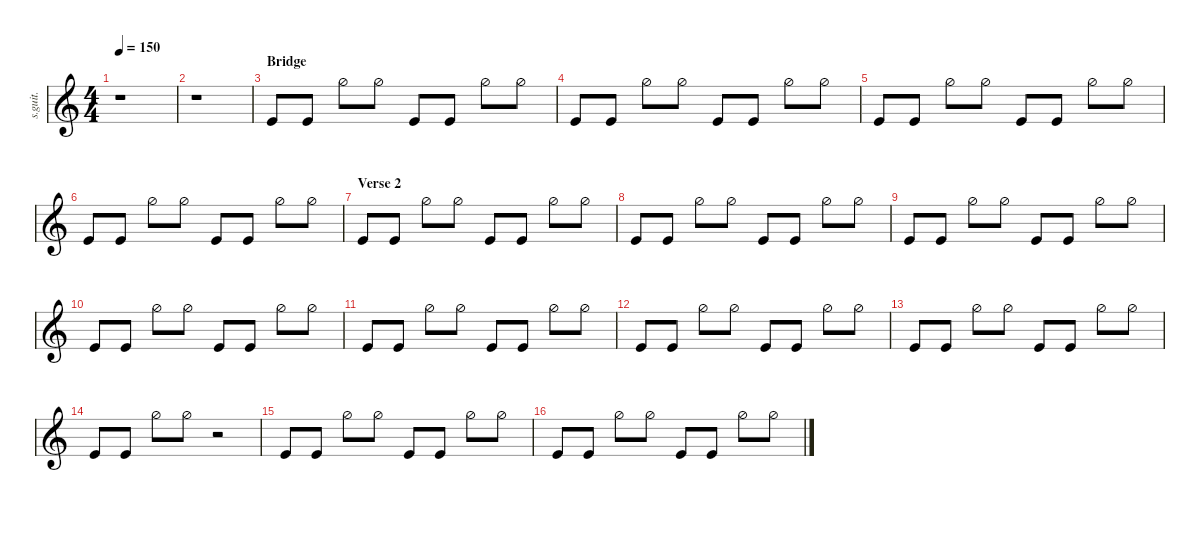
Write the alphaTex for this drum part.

\defaultSystemsLayout 4
\hideDynamics
\bracketExtendMode nobrackets
\track ("Synth Drums 1" "s.guit.") {instrument percussion}
\staff {score}
\articulation defaults
\ts (4 4)
\tempo 150
\clef g2
\ks c
r.1{dy f} |
r.1 |
\section ("" "Bridge")
"Kick (hit)".8{lyrics (0 "") lyrics (1 "") lyrics (2 "") lyrics (3 "") lyrics (4 "")} "Kick (hit)".8{lyrics (0 "") lyrics (1 "") lyrics (2 "") lyrics (3 "") lyrics (4 "")} "Hi-Hat (half)".8{lyrics (0 "") lyrics (1 "") lyrics (2 "") lyrics (3 "") lyrics (4 "")} "Hi-Hat (half)".8{lyrics (0 "") lyrics (1 "") lyrics (2 "") lyrics (3 "") lyrics (4 "")} "Kick (hit)".8{lyrics (0 "") lyrics (1 "") lyrics (2 "") lyrics (3 "") lyrics (4 "")} "Kick (hit)".8{lyrics (0 "") lyrics (1 "") lyrics (2 "") lyrics (3 "") lyrics (4 "")} "Hi-Hat (half)".8{lyrics (0 "") lyrics (1 "") lyrics (2 "") lyrics (3 "") lyrics (4 "")} "Hi-Hat (half)".8{lyrics (0 "") lyrics (1 "") lyrics (2 "") lyrics (3 "") lyrics (4 "")} |
"Kick (hit)".8{lyrics (0 "") lyrics (1 "") lyrics (2 "") lyrics (3 "") lyrics (4 "")} "Kick (hit)".8{lyrics (0 "") lyrics (1 "") lyrics (2 "") lyrics (3 "") lyrics (4 "")} "Hi-Hat (half)".8{lyrics (0 "") lyrics (1 "") lyrics (2 "") lyrics (3 "") lyrics (4 "")} "Hi-Hat (half)".8{lyrics (0 "") lyrics (1 "") lyrics (2 "") lyrics (3 "") lyrics (4 "")} "Kick (hit)".8{lyrics (0 "") lyrics (1 "") lyrics (2 "") lyrics (3 "") lyrics (4 "")} "Kick (hit)".8{lyrics (0 "") lyrics (1 "") lyrics (2 "") lyrics (3 "") lyrics (4 "")} "Hi-Hat (half)".8{lyrics (0 "") lyrics (1 "") lyrics (2 "") lyrics (3 "") lyrics (4 "")} "Hi-Hat (half)".8{lyrics (0 "") lyrics (1 "") lyrics (2 "") lyrics (3 "") lyrics (4 "")} |
"Kick (hit)".8{lyrics (0 "") lyrics (1 "") lyrics (2 "") lyrics (3 "") lyrics (4 "")} "Kick (hit)".8{lyrics (0 "") lyrics (1 "") lyrics (2 "") lyrics (3 "") lyrics (4 "")} "Hi-Hat (half)".8{lyrics (0 "") lyrics (1 "") lyrics (2 "") lyrics (3 "") lyrics (4 "")} "Hi-Hat (half)".8{lyrics (0 "") lyrics (1 "") lyrics (2 "") lyrics (3 "") lyrics (4 "")} "Kick (hit)".8{lyrics (0 "") lyrics (1 "") lyrics (2 "") lyrics (3 "") lyrics (4 "")} "Kick (hit)".8{lyrics (0 "") lyrics (1 "") lyrics (2 "") lyrics (3 "") lyrics (4 "")} "Hi-Hat (half)".8{lyrics (0 "") lyrics (1 "") lyrics (2 "") lyrics (3 "") lyrics (4 "")} "Hi-Hat (half)".8{lyrics (0 "") lyrics (1 "") lyrics (2 "") lyrics (3 "") lyrics (4 "")} |
"Kick (hit)".8{lyrics (0 "") lyrics (1 "") lyrics (2 "") lyrics (3 "") lyrics (4 "")} "Kick (hit)".8{lyrics (0 "") lyrics (1 "") lyrics (2 "") lyrics (3 "") lyrics (4 "")} "Hi-Hat (half)".8{lyrics (0 "") lyrics (1 "") lyrics (2 "") lyrics (3 "") lyrics (4 "")} "Hi-Hat (half)".8{lyrics (0 "") lyrics (1 "") lyrics (2 "") lyrics (3 "") lyrics (4 "")} "Kick (hit)".8{lyrics (0 "") lyrics (1 "") lyrics (2 "") lyrics (3 "") lyrics (4 "")} "Kick (hit)".8{lyrics (0 "") lyrics (1 "") lyrics (2 "") lyrics (3 "") lyrics (4 "")} "Hi-Hat (half)".8{lyrics (0 "") lyrics (1 "") lyrics (2 "") lyrics (3 "") lyrics (4 "")} "Hi-Hat (half)".8{lyrics (0 "") lyrics (1 "") lyrics (2 "") lyrics (3 "") lyrics (4 "")} |
\section ("" "Verse 2")
"Kick (hit)".8{lyrics (0 "") lyrics (1 "") lyrics (2 "") lyrics (3 "") lyrics (4 "")} "Kick (hit)".8{lyrics (0 "") lyrics (1 "") lyrics (2 "") lyrics (3 "") lyrics (4 "")} "Hi-Hat (half)".8{lyrics (0 "") lyrics (1 "") lyrics (2 "") lyrics (3 "") lyrics (4 "")} "Hi-Hat (half)".8{lyrics (0 "") lyrics (1 "") lyrics (2 "") lyrics (3 "") lyrics (4 "")} "Kick (hit)".8{lyrics (0 "") lyrics (1 "") lyrics (2 "") lyrics (3 "") lyrics (4 "")} "Kick (hit)".8{lyrics (0 "") lyrics (1 "") lyrics (2 "") lyrics (3 "") lyrics (4 "")} "Hi-Hat (half)".8{lyrics (0 "") lyrics (1 "") lyrics (2 "") lyrics (3 "") lyrics (4 "")} "Hi-Hat (half)".8{lyrics (0 "") lyrics (1 "") lyrics (2 "") lyrics (3 "") lyrics (4 "")} |
"Kick (hit)".8{lyrics (0 "") lyrics (1 "") lyrics (2 "") lyrics (3 "") lyrics (4 "")} "Kick (hit)".8{lyrics (0 "") lyrics (1 "") lyrics (2 "") lyrics (3 "") lyrics (4 "")} "Hi-Hat (half)".8{lyrics (0 "") lyrics (1 "") lyrics (2 "") lyrics (3 "") lyrics (4 "")} "Hi-Hat (half)".8{lyrics (0 "") lyrics (1 "") lyrics (2 "") lyrics (3 "") lyrics (4 "")} "Kick (hit)".8{lyrics (0 "") lyrics (1 "") lyrics (2 "") lyrics (3 "") lyrics (4 "")} "Kick (hit)".8{lyrics (0 "") lyrics (1 "") lyrics (2 "") lyrics (3 "") lyrics (4 "")} "Hi-Hat (half)".8{lyrics (0 "") lyrics (1 "") lyrics (2 "") lyrics (3 "") lyrics (4 "")} "Hi-Hat (half)".8{lyrics (0 "") lyrics (1 "") lyrics (2 "") lyrics (3 "") lyrics (4 "")} |
"Kick (hit)".8{lyrics (0 "") lyrics (1 "") lyrics (2 "") lyrics (3 "") lyrics (4 "")} "Kick (hit)".8{lyrics (0 "") lyrics (1 "") lyrics (2 "") lyrics (3 "") lyrics (4 "")} "Hi-Hat (half)".8{lyrics (0 "") lyrics (1 "") lyrics (2 "") lyrics (3 "") lyrics (4 "")} "Hi-Hat (half)".8{lyrics (0 "") lyrics (1 "") lyrics (2 "") lyrics (3 "") lyrics (4 "")} "Kick (hit)".8{lyrics (0 "") lyrics (1 "") lyrics (2 "") lyrics (3 "") lyrics (4 "")} "Kick (hit)".8{lyrics (0 "") lyrics (1 "") lyrics (2 "") lyrics (3 "") lyrics (4 "")} "Hi-Hat (half)".8{lyrics (0 "") lyrics (1 "") lyrics (2 "") lyrics (3 "") lyrics (4 "")} "Hi-Hat (half)".8{lyrics (0 "") lyrics (1 "") lyrics (2 "") lyrics (3 "") lyrics (4 "")} |
"Kick (hit)".8{lyrics (0 "") lyrics (1 "") lyrics (2 "") lyrics (3 "") lyrics (4 "")} "Kick (hit)".8{lyrics (0 "") lyrics (1 "") lyrics (2 "") lyrics (3 "") lyrics (4 "")} "Hi-Hat (half)".8{lyrics (0 "") lyrics (1 "") lyrics (2 "") lyrics (3 "") lyrics (4 "")} "Hi-Hat (half)".8{lyrics (0 "") lyrics (1 "") lyrics (2 "") lyrics (3 "") lyrics (4 "")} "Kick (hit)".8{lyrics (0 "") lyrics (1 "") lyrics (2 "") lyrics (3 "") lyrics (4 "")} "Kick (hit)".8{lyrics (0 "") lyrics (1 "") lyrics (2 "") lyrics (3 "") lyrics (4 "")} "Hi-Hat (half)".8{lyrics (0 "") lyrics (1 "") lyrics (2 "") lyrics (3 "") lyrics (4 "")} "Hi-Hat (half)".8{lyrics (0 "") lyrics (1 "") lyrics (2 "") lyrics (3 "") lyrics (4 "")} |
"Kick (hit)".8{lyrics (0 "") lyrics (1 "") lyrics (2 "") lyrics (3 "") lyrics (4 "")} "Kick (hit)".8{lyrics (0 "") lyrics (1 "") lyrics (2 "") lyrics (3 "") lyrics (4 "")} "Hi-Hat (half)".8{lyrics (0 "") lyrics (1 "") lyrics (2 "") lyrics (3 "") lyrics (4 "")} "Hi-Hat (half)".8{lyrics (0 "") lyrics (1 "") lyrics (2 "") lyrics (3 "") lyrics (4 "")} "Kick (hit)".8{lyrics (0 "") lyrics (1 "") lyrics (2 "") lyrics (3 "") lyrics (4 "")} "Kick (hit)".8{lyrics (0 "") lyrics (1 "") lyrics (2 "") lyrics (3 "") lyrics (4 "")} "Hi-Hat (half)".8{lyrics (0 "") lyrics (1 "") lyrics (2 "") lyrics (3 "") lyrics (4 "")} "Hi-Hat (half)".8{lyrics (0 "") lyrics (1 "") lyrics (2 "") lyrics (3 "") lyrics (4 "")} |
"Kick (hit)".8{lyrics (0 "") lyrics (1 "") lyrics (2 "") lyrics (3 "") lyrics (4 "")} "Kick (hit)".8{lyrics (0 "") lyrics (1 "") lyrics (2 "") lyrics (3 "") lyrics (4 "")} "Hi-Hat (half)".8{lyrics (0 "") lyrics (1 "") lyrics (2 "") lyrics (3 "") lyrics (4 "")} "Hi-Hat (half)".8{lyrics (0 "") lyrics (1 "") lyrics (2 "") lyrics (3 "") lyrics (4 "")} "Kick (hit)".8{lyrics (0 "") lyrics (1 "") lyrics (2 "") lyrics (3 "") lyrics (4 "")} "Kick (hit)".8{lyrics (0 "") lyrics (1 "") lyrics (2 "") lyrics (3 "") lyrics (4 "")} "Hi-Hat (half)".8{lyrics (0 "") lyrics (1 "") lyrics (2 "") lyrics (3 "") lyrics (4 "")} "Hi-Hat (half)".8{lyrics (0 "") lyrics (1 "") lyrics (2 "") lyrics (3 "") lyrics (4 "")} |
"Kick (hit)".8{lyrics (0 "") lyrics (1 "") lyrics (2 "") lyrics (3 "") lyrics (4 "")} "Kick (hit)".8{lyrics (0 "") lyrics (1 "") lyrics (2 "") lyrics (3 "") lyrics (4 "")} "Hi-Hat (half)".8{lyrics (0 "") lyrics (1 "") lyrics (2 "") lyrics (3 "") lyrics (4 "")} "Hi-Hat (half)".8{lyrics (0 "") lyrics (1 "") lyrics (2 "") lyrics (3 "") lyrics (4 "")} "Kick (hit)".8{lyrics (0 "") lyrics (1 "") lyrics (2 "") lyrics (3 "") lyrics (4 "")} "Kick (hit)".8{lyrics (0 "") lyrics (1 "") lyrics (2 "") lyrics (3 "") lyrics (4 "")} "Hi-Hat (half)".8{lyrics (0 "") lyrics (1 "") lyrics (2 "") lyrics (3 "") lyrics (4 "")} "Hi-Hat (half)".8{lyrics (0 "") lyrics (1 "") lyrics (2 "") lyrics (3 "") lyrics (4 "")} |
"Kick (hit)".8{lyrics (0 "") lyrics (1 "") lyrics (2 "") lyrics (3 "") lyrics (4 "")} "Kick (hit)".8{lyrics (0 "") lyrics (1 "") lyrics (2 "") lyrics (3 "") lyrics (4 "")} "Hi-Hat (half)".8{lyrics (0 "") lyrics (1 "") lyrics (2 "") lyrics (3 "") lyrics (4 "")} "Hi-Hat (half)".8{lyrics (0 "") lyrics (1 "") lyrics (2 "") lyrics (3 "") lyrics (4 "")} r.2 |
"Kick (hit)".8{lyrics (0 "") lyrics (1 "") lyrics (2 "") lyrics (3 "") lyrics (4 "")} "Kick (hit)".8{lyrics (0 "") lyrics (1 "") lyrics (2 "") lyrics (3 "") lyrics (4 "")} "Hi-Hat (half)".8{lyrics (0 "") lyrics (1 "") lyrics (2 "") lyrics (3 "") lyrics (4 "")} "Hi-Hat (half)".8{lyrics (0 "") lyrics (1 "") lyrics (2 "") lyrics (3 "") lyrics (4 "")} "Kick (hit)".8{lyrics (0 "") lyrics (1 "") lyrics (2 "") lyrics (3 "") lyrics (4 "")} "Kick (hit)".8{lyrics (0 "") lyrics (1 "") lyrics (2 "") lyrics (3 "") lyrics (4 "")} "Hi-Hat (half)".8{lyrics (0 "") lyrics (1 "") lyrics (2 "") lyrics (3 "") lyrics (4 "")} "Hi-Hat (half)".8{lyrics (0 "") lyrics (1 "") lyrics (2 "") lyrics (3 "") lyrics (4 "")} |
"Kick (hit)".8{lyrics (0 "") lyrics (1 "") lyrics (2 "") lyrics (3 "") lyrics (4 "")} "Kick (hit)".8{lyrics (0 "") lyrics (1 "") lyrics (2 "") lyrics (3 "") lyrics (4 "")} "Hi-Hat (half)".8{lyrics (0 "") lyrics (1 "") lyrics (2 "") lyrics (3 "") lyrics (4 "")} "Hi-Hat (half)".8{lyrics (0 "") lyrics (1 "") lyrics (2 "") lyrics (3 "") lyrics (4 "")} "Kick (hit)".8{lyrics (0 "") lyrics (1 "") lyrics (2 "") lyrics (3 "") lyrics (4 "")} "Kick (hit)".8{lyrics (0 "") lyrics (1 "") lyrics (2 "") lyrics (3 "") lyrics (4 "")} "Hi-Hat (half)".8{lyrics (0 "") lyrics (1 "") lyrics (2 "") lyrics (3 "") lyrics (4 "")} "Hi-Hat (half)".8{lyrics (0 "") lyrics (1 "") lyrics (2 "") lyrics (3 "") lyrics (4 "")}
